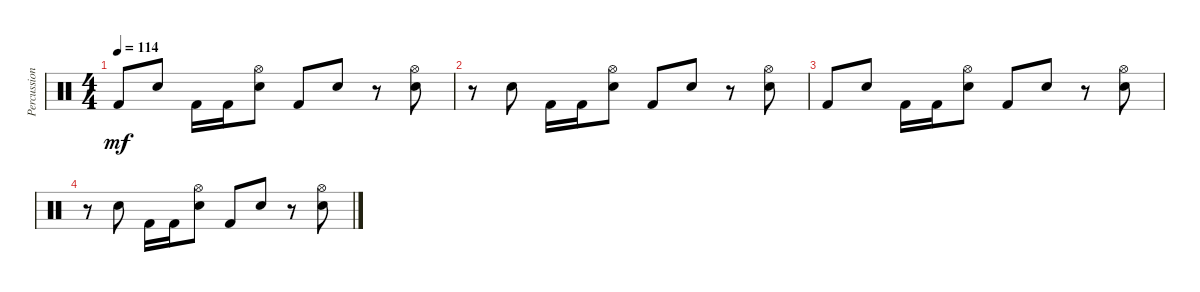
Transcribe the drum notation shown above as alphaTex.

\track ("Percussion" "Percussion") {instrument percussion}
\staff {score}
\articulation defaults
\ts (4 4)
\tempo 114
\clef neutral
\ks c "Kick (hit) 2".8{dy mf} "Snare (hit) 2".8 "Kick (hit) 2".16 "Kick (hit) 2".16
("Hi-Hat (open)" "Snare (hit) 2").8 "Kick (hit) 2".8 "Snare (hit) 2".8 r.8 ("Hi-Hat (open)" "Snare (hit) 2").8 |
r.8 "Snare (hit) 2".8 "Kick (hit) 2".16 "Kick (hit) 2".16 ("Hi-Hat (open)" "Snare (hit) 2").8 "Kick (hit) 2".8 "Snare (hit) 2".8 r.8 ("Hi-Hat (open)" "Snare (hit) 2").8 |
"Kick (hit) 2".8 "Snare (hit) 2".8 "Kick (hit) 2".16 "Kick (hit) 2".16 ("Hi-Hat (open)" "Snare (hit) 2").8 "Kick (hit) 2".8 "Snare (hit) 2".8 r.8 ("Hi-Hat (open)" "Snare (hit) 2").8 |
r.8 "Snare (hit) 2".8 "Kick (hit) 2".16 "Kick (hit) 2".16 ("Hi-Hat (open)" "Snare (hit) 2").8 "Kick (hit) 2".8 "Snare (hit) 2".8 r.8 ("Hi-Hat (open)" "Snare (hit) 2").8
